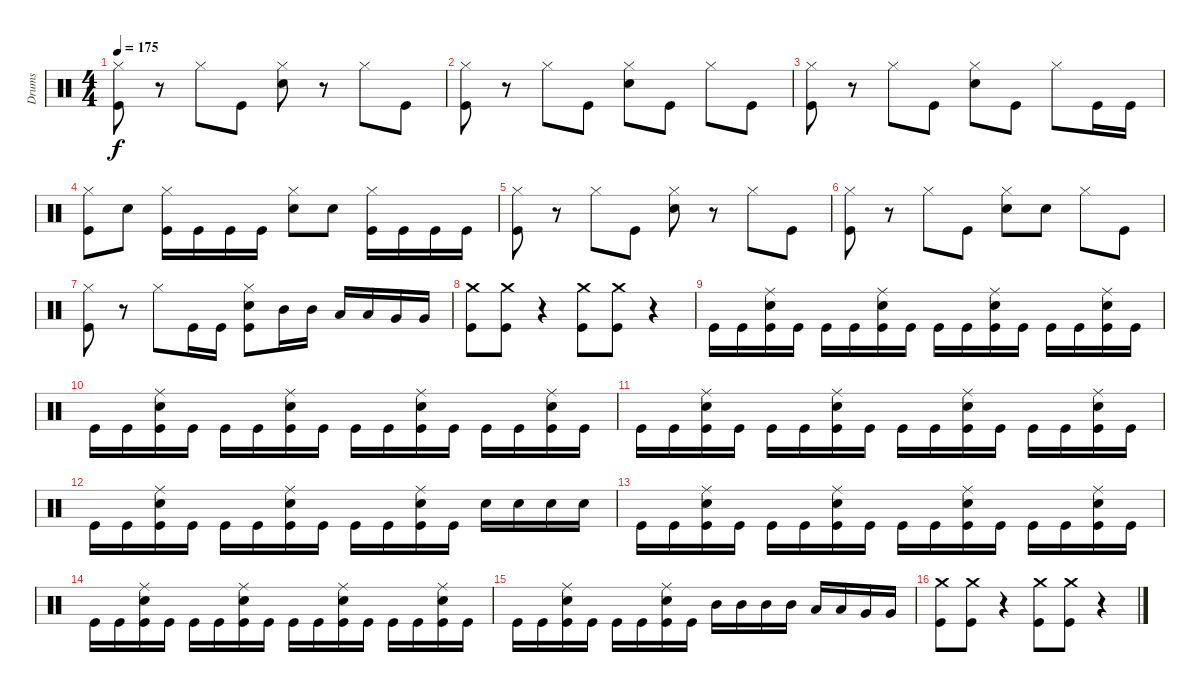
\track ("Drums" "Drums") {instrument percussion}
\staff {score}
\articulation defaults
\ts (4 4)
\tempo 175
\clef neutral
\ks c
("Hi-Hat (closed)" "Kick (hit)").8{dy f} r.8 "Hi-Hat (closed)".8 "Kick (hit)".8 ("Hi-Hat (closed)" "Snare (hit) 2").8 r.8 "Hi-Hat (closed)".8 "Kick (hit)".8 |
("Hi-Hat (closed)" "Kick (hit)").8 r.8 "Hi-Hat (closed)".8 "Kick (hit)".8 ("Hi-Hat (closed)" "Snare (hit) 2").8 "Kick (hit)".8 "Hi-Hat (closed)".8 "Kick (hit)".8 |
("Hi-Hat (closed)" "Kick (hit)").8 r.8 "Hi-Hat (closed)".8 "Kick (hit)".8 ("Hi-Hat (closed)" "Snare (hit) 2").8 "Kick (hit)".8 "Hi-Hat (closed)".8 "Kick (hit)".16 "Kick (hit)".16 |
("Hi-Hat (closed)" "Kick (hit)").8 "Snare (hit) 2".8 ("Hi-Hat (closed)" "Kick (hit)").16 "Kick (hit)".16 "Kick (hit)".16 "Kick (hit)".16 ("Hi-Hat (closed)" "Snare (hit) 2").8 "Snare (hit) 2".8 ("Hi-Hat (closed)" "Kick (hit)").16 "Kick (hit)".16 "Kick (hit)".16 "Kick (hit)".16 |
("Hi-Hat (closed)" "Kick (hit)").8 r.8 "Hi-Hat (closed)".8 "Kick (hit)".8 ("Hi-Hat (closed)" "Snare (hit) 2").8 r.8 "Hi-Hat (closed)".8 "Kick (hit)".8 |
("Hi-Hat (closed)" "Kick (hit)").8 r.8 "Hi-Hat (closed)".8 "Kick (hit)".8 ("Hi-Hat (closed)" "Snare (hit) 2").8 "Snare (hit) 2".8 "Hi-Hat (closed)".8 "Kick (hit)".8 |
("Hi-Hat (closed)" "Kick (hit)").8 r.8 "Hi-Hat (closed)".8 "Kick (hit)".16 "Kick (hit)".16 ("Hi-Hat (closed)" "Snare (hit) 2" "Kick (hit)").8 "Mid Tom (hit)".16 "Mid Tom (hit)".16 "Low Tom (hit)".16 "Low Tom (hit)".16 "Very Low Tom (hit)".16 "Very Low Tom (hit)".16 |
("Crash medium (hit)" "Kick (hit)").8 ("Crash medium (hit)" "Kick (hit)").8 r.4 ("Crash medium (hit)" "Kick (hit)").8 ("Crash medium (hit)" "Kick (hit)").8 r.4 |
"Kick (hit)".16 "Kick (hit)".16 ("Ride (middle)" "Snare (hit) 2" "Kick (hit)").16 "Kick (hit)".16 "Kick (hit)".16 "Kick (hit)".16 ("Ride (middle)" "Snare (hit) 2" "Kick (hit)").16 "Kick (hit)".16 "Kick (hit)".16 "Kick (hit)".16 ("Ride (middle)" "Snare (hit) 2" "Kick (hit)").16 "Kick (hit)".16 "Kick (hit)".16 "Kick (hit)".16 ("Ride (middle)" "Snare (hit) 2" "Kick (hit)").16 "Kick (hit)".16 |
"Kick (hit)".16 "Kick (hit)".16 ("Ride (middle)" "Snare (hit) 2" "Kick (hit)").16 "Kick (hit)".16 "Kick (hit)".16 "Kick (hit)".16 ("Ride (middle)" "Snare (hit) 2" "Kick (hit)").16 "Kick (hit)".16 "Kick (hit)".16 "Kick (hit)".16 ("Ride (middle)" "Snare (hit) 2" "Kick (hit)").16 "Kick (hit)".16 "Kick (hit)".16 "Kick (hit)".16 ("Ride (middle)" "Snare (hit) 2" "Kick (hit)").16 "Kick (hit)".16 |
"Kick (hit)".16 "Kick (hit)".16 ("Ride (middle)" "Snare (hit) 2" "Kick (hit)").16 "Kick (hit)".16 "Kick (hit)".16 "Kick (hit)".16 ("Ride (middle)" "Snare (hit) 2" "Kick (hit)").16 "Kick (hit)".16 "Kick (hit)".16 "Kick (hit)".16 ("Ride (middle)" "Snare (hit) 2" "Kick (hit)").16 "Kick (hit)".16 "Kick (hit)".16 "Kick (hit)".16 ("Ride (middle)" "Snare (hit) 2" "Kick (hit)").16 "Kick (hit)".16 |
"Kick (hit)".16 "Kick (hit)".16 ("Ride (middle)" "Snare (hit) 2" "Kick (hit)").16 "Kick (hit)".16 "Kick (hit)".16 "Kick (hit)".16 ("Ride (middle)" "Snare (hit) 2" "Kick (hit)").16 "Kick (hit)".16 "Kick (hit)".16 "Kick (hit)".16 ("Ride (middle)" "Snare (hit) 2" "Kick (hit)").16 "Kick (hit)".16 "Snare (hit) 2".16 "Snare (hit) 2".16 "Snare (hit) 2".16 "Snare (hit) 2".16 |
"Kick (hit)".16 "Kick (hit)".16 ("Ride (middle)" "Snare (hit) 2" "Kick (hit)").16 "Kick (hit)".16 "Kick (hit)".16 "Kick (hit)".16 ("Ride (middle)" "Snare (hit) 2" "Kick (hit)").16 "Kick (hit)".16 "Kick (hit)".16 "Kick (hit)".16 ("Ride (middle)" "Snare (hit) 2" "Kick (hit)").16 "Kick (hit)".16 "Kick (hit)".16 "Kick (hit)".16 ("Ride (middle)" "Snare (hit) 2" "Kick (hit)").16 "Kick (hit)".16 |
"Kick (hit)".16 "Kick (hit)".16 ("Ride (middle)" "Snare (hit) 2" "Kick (hit)").16 "Kick (hit)".16 "Kick (hit)".16 "Kick (hit)".16 ("Ride (middle)" "Snare (hit) 2" "Kick (hit)").16 "Kick (hit)".16 "Kick (hit)".16 "Kick (hit)".16 ("Ride (middle)" "Snare (hit) 2" "Kick (hit)").16 "Kick (hit)".16 "Kick (hit)".16 "Kick (hit)".16 ("Ride (middle)" "Snare (hit) 2" "Kick (hit)").16 "Kick (hit)".16 |
"Kick (hit)".16 "Kick (hit)".16 ("Ride (middle)" "Snare (hit) 2" "Kick (hit)").16 "Kick (hit)".16 "Kick (hit)".16 "Kick (hit)".16 ("Ride (middle)" "Snare (hit) 2" "Kick (hit)").16 "Kick (hit)".16 "Mid Tom (hit)".16 "Mid Tom (hit)".16 "Mid Tom (hit)".16 "Mid Tom (hit)".16 "Low Tom (hit)".16 "Low Tom (hit)".16 "Very Low Tom (hit)".16 "Very Low Tom (hit)".16 |
("Crash medium (hit)" "Kick (hit)").8 ("Crash medium (hit)" "Kick (hit)").8 r.4 ("Crash medium (hit)" "Kick (hit)").8 ("Crash medium (hit)" "Kick (hit)").8 r.4
